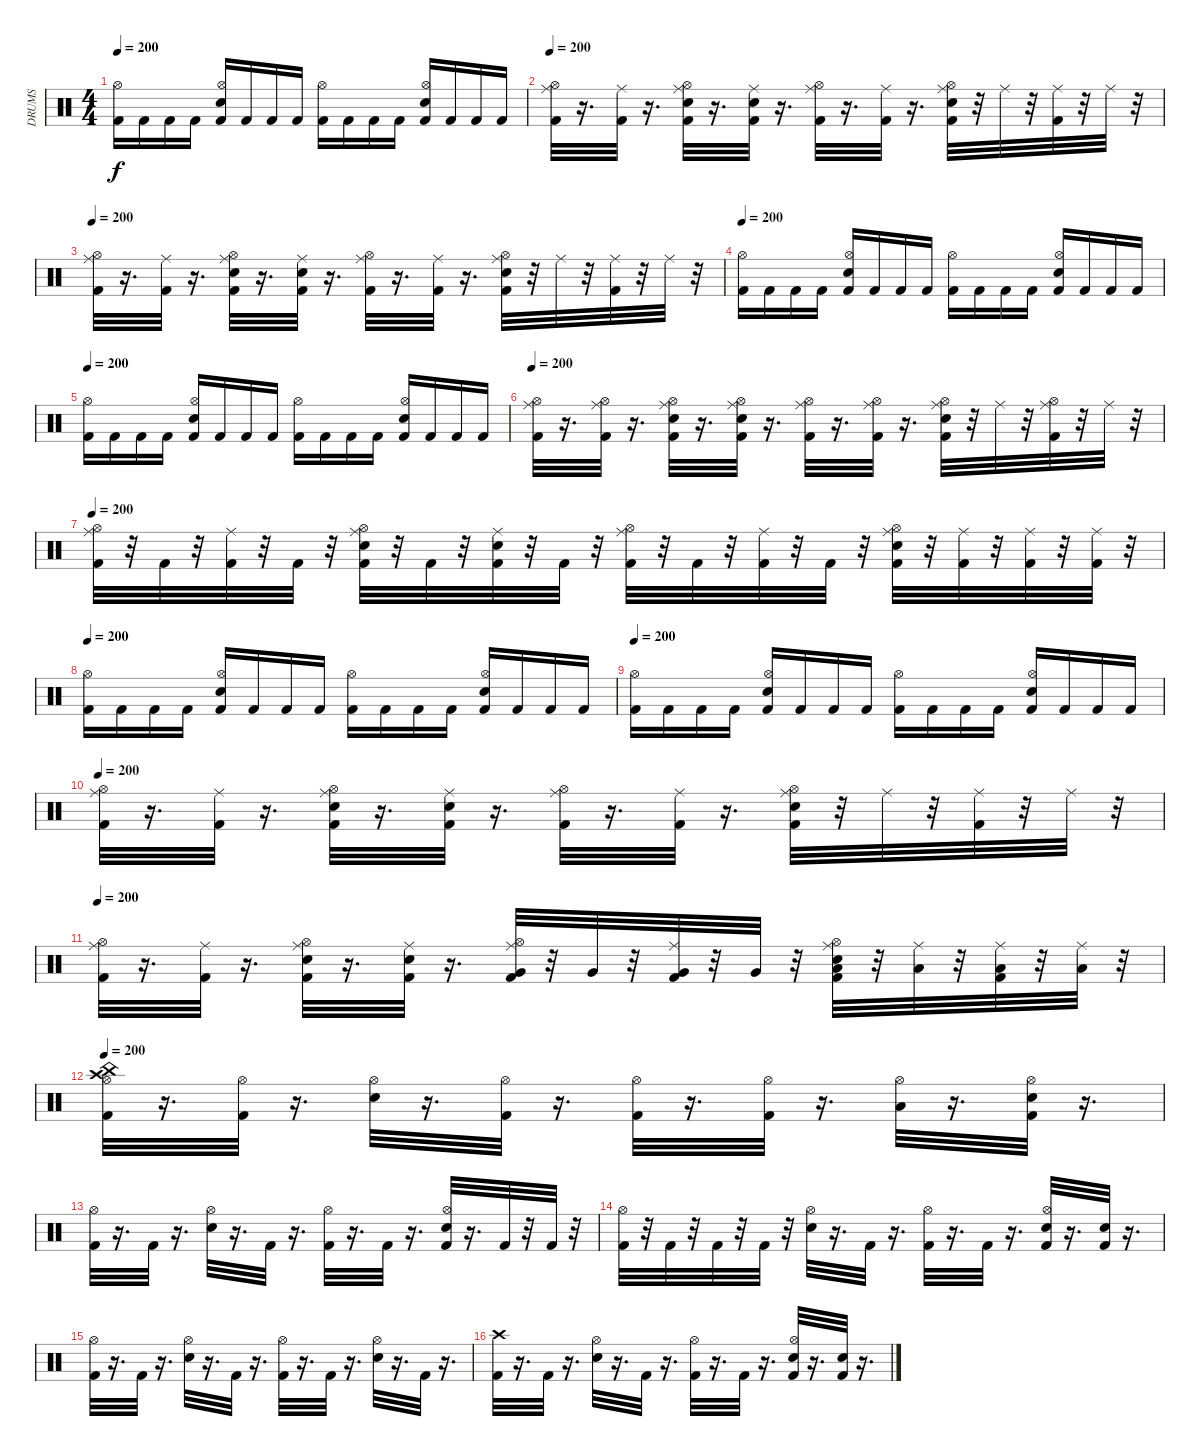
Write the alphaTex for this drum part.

\track ("DRUMS" "DRUMS") {instrument percussion}
\staff {score}
\articulation defaults
\ts (4 4)
\tempo 200
\clef neutral
\ks c
("Kick (hit) 2" "Hi-Hat (open)").16{dy f} "Kick (hit) 2".16 "Kick (hit) 2".16 "Kick (hit) 2".16 ("Kick (hit) 2" "Snare (hit) 2" "Hi-Hat (open)").16 "Kick (hit) 2".16 "Kick (hit) 2".16 "Kick (hit) 2".16 ("Kick (hit) 2" "Hi-Hat (open)").16 "Kick (hit) 2".16 "Kick (hit) 2".16 "Kick (hit) 2".16 ("Kick (hit) 2" "Snare (hit) 2" "Hi-Hat (open)").16 "Kick (hit) 2".16 "Kick (hit) 2".16 "Kick (hit) 2".16 |
\tempo 200
("Hi-Hat (open)" "Kick (hit) 2" "Ride (middle)").32 r.16{d} ("Ride (middle)" "Kick (hit) 2").32 r.16{d} ("Ride (middle)" "Kick (hit) 2" "Hi-Hat (open)" "Snare (hit) 2").32 r.16{d} ("Snare (hit) 2" "Ride (middle)" "Kick (hit) 2").32 r.16{d} ("Hi-Hat (open)" "Kick (hit) 2" "Ride (middle)").32 r.16{d} ("Kick (hit) 2" "Ride (middle)").32 r.16{d} ("Snare (hit) 2" "Hi-Hat (open)" "Kick (hit) 2" "Ride (middle)").32 r.32 "Ride (middle)".32 r.32 ("Kick (hit) 2" "Ride (middle)").32 r.32 "Ride (middle)".32 r.32 |
\tempo 200
("Ride (middle)" "Hi-Hat (open)" "Kick (hit) 2").32 r.16{d} ("Kick (hit) 2" "Ride (middle)").32 r.16{d} ("Kick (hit) 2" "Hi-Hat (open)" "Snare (hit) 2" "Ride (middle)").32 r.16{d} ("Ride (middle)" "Kick (hit) 2" "Snare (hit) 2").32 r.16{d} ("Hi-Hat (open)" "Ride (middle)" "Kick (hit) 2").32 r.16{d} ("Ride (middle)" "Kick (hit) 2").32 r.16{d} ("Snare (hit) 2" "Ride (middle)" "Hi-Hat (open)" "Kick (hit) 2").32 r.32 "Ride (middle)".32 r.32 ("Kick (hit) 2" "Ride (middle)").32 r.32 "Ride (middle)".32 r.32 |
\tempo 200
("Kick (hit) 2" "Hi-Hat (open)").16 "Kick (hit) 2".16 "Kick (hit) 2".16 "Kick (hit) 2".16 ("Kick (hit) 2" "Snare (hit) 2" "Hi-Hat (open)").16 "Kick (hit) 2".16 "Kick (hit) 2".16 "Kick (hit) 2".16 ("Kick (hit) 2" "Hi-Hat (open)").16 "Kick (hit) 2".16 "Kick (hit) 2".16 "Kick (hit) 2".16 ("Kick (hit) 2" "Snare (hit) 2" "Hi-Hat (open)").16 "Kick (hit) 2".16 "Kick (hit) 2".16 "Kick (hit) 2".16 |
\tempo 200
("Kick (hit) 2" "Hi-Hat (open)").16 "Kick (hit) 2".16 "Kick (hit) 2".16 "Kick (hit) 2".16 ("Kick (hit) 2" "Snare (hit) 2" "Hi-Hat (open)").16 "Kick (hit) 2".16 "Kick (hit) 2".16 "Kick (hit) 2".16 ("Kick (hit) 2" "Hi-Hat (open)").16 "Kick (hit) 2".16 "Kick (hit) 2".16 "Kick (hit) 2".16 ("Kick (hit) 2" "Snare (hit) 2" "Hi-Hat (open)").16 "Kick (hit) 2".16 "Kick (hit) 2".16 "Kick (hit) 2".16 |
\tempo 200
("Ride (middle)" "Kick (hit) 2" "Hi-Hat (open)").32 r.16{d} ("Kick (hit) 2" "Ride (middle)" "Hi-Hat (open)").32 r.16{d} ("Hi-Hat (open)" "Ride (middle)" "Kick (hit) 2" "Snare (hit) 2").32 r.16{d} ("Kick (hit) 2" "Ride (middle)" "Hi-Hat (open)" "Snare (hit) 2").32 r.16{d} ("Ride (middle)" "Hi-Hat (open)" "Kick (hit) 2").32 r.16{d} ("Ride (middle)" "Kick (hit) 2" "Hi-Hat (open)").32 r.16{d} ("Hi-Hat (open)" "Ride (middle)" "Kick (hit) 2" "Snare (hit) 2").32 r.32 "Ride (middle)".32 r.32 ("Hi-Hat (open)" "Ride (middle)" "Kick (hit) 2").32 r.32 "Ride (middle)".32 r.32 |
\tempo 200
("Hi-Hat (open)" "Kick (hit) 2" "Ride (middle)").32 r.32 "Kick (hit) 2".32 r.32 ("Ride (middle)" "Kick (hit) 2").32 r.32 "Kick (hit) 2".32 r.32 ("Ride (middle)" "Kick (hit) 2" "Hi-Hat (open)" "Snare (hit) 2").32 r.32 "Kick (hit) 2".32 r.32 ("Snare (hit) 2" "Ride (middle)" "Kick (hit) 2").32 r.32 "Kick (hit) 2".32 r.32 ("Ride (middle)" "Hi-Hat (open)" "Kick (hit) 2").32 r.32 "Kick (hit) 2".32 r.32 ("Ride (middle)" "Kick (hit) 2").32 r.32 "Kick (hit) 2".32 r.32 ("Kick (hit) 2" "Ride (middle)" "Snare (hit) 2" "Hi-Hat (open)").32 r.32 ("Ride (middle)" "Kick (hit) 2").32 r.32 ("Kick (hit) 2" "Ride (middle)").32 r.32 ("Ride (middle)" "Kick (hit) 2").32 r.32 |
\tempo 200
("Kick (hit) 2" "Hi-Hat (open)").16 "Kick (hit) 2".16 "Kick (hit) 2".16 "Kick (hit) 2".16 ("Kick (hit) 2" "Snare (hit) 2" "Hi-Hat (open)").16 "Kick (hit) 2".16 "Kick (hit) 2".16 "Kick (hit) 2".16 ("Kick (hit) 2" "Hi-Hat (open)").16 "Kick (hit) 2".16 "Kick (hit) 2".16 "Kick (hit) 2".16 ("Kick (hit) 2" "Snare (hit) 2" "Hi-Hat (open)").16 "Kick (hit) 2".16 "Kick (hit) 2".16 "Kick (hit) 2".16 |
\tempo 200
("Kick (hit) 2" "Hi-Hat (open)").16 "Kick (hit) 2".16 "Kick (hit) 2".16 "Kick (hit) 2".16 ("Kick (hit) 2" "Snare (hit) 2" "Hi-Hat (open)").16 "Kick (hit) 2".16 "Kick (hit) 2".16 "Kick (hit) 2".16 ("Kick (hit) 2" "Hi-Hat (open)").16 "Kick (hit) 2".16 "Kick (hit) 2".16 "Kick (hit) 2".16 ("Kick (hit) 2" "Snare (hit) 2" "Hi-Hat (open)").16 "Kick (hit) 2".16 "Kick (hit) 2".16 "Kick (hit) 2".16 |
\tempo 200
("Kick (hit) 2" "Hi-Hat (open)" "Ride (middle)").32 r.16{d} ("Ride (middle)" "Kick (hit) 2").32 r.16{d} ("Snare (hit) 2" "Ride (middle)" "Kick (hit) 2" "Hi-Hat (open)").32 r.16{d} ("Snare (hit) 2" "Ride (middle)" "Kick (hit) 2").32 r.16{d} ("Kick (hit) 2" "Hi-Hat (open)" "Ride (middle)").32 r.16{d} ("Ride (middle)" "Kick (hit) 2").32 r.16{d} ("Snare (hit) 2" "Hi-Hat (open)" "Kick (hit) 2" "Ride (middle)").32 r.32 "Ride (middle)".32 r.32 ("Kick (hit) 2" "Ride (middle)").32 r.32 "Ride (middle)".32 r.32 |
\tempo 200
("Kick (hit) 2" "Hi-Hat (open)" "Ride (middle)").32 r.16{d} ("Kick (hit) 2" "Ride (middle)").32 r.16{d} ("Kick (hit) 2" "Ride (middle)" "Hi-Hat (open)" "Snare (hit) 2").32 r.16{d} ("Kick (hit) 2" "Ride (middle)" "Snare (hit) 2").32 r.16{d} ("Very Low Tom (hit)" "Ride (middle)" "Kick (hit) 2" "Hi-Hat (open)").32 r.32 "Very Low Tom (hit)".32 r.32 ("Very Low Tom (hit)" "Kick (hit) 2" "Ride (middle)").32 r.32 "Very Low Tom (hit)".32 r.32 ("Low Floor Tom (hit)" "Kick (hit) 2" "Ride (middle)" "Snare (hit) 2" "Hi-Hat (open)").32 r.32 ("Low Floor Tom (hit)" "Ride (middle)").32 r.32 ("Low Floor Tom (hit)" "Ride (middle)" "Kick (hit) 2").32 r.32 ("Low Floor Tom (hit)" "Ride (middle)").32 r.32 |
\tempo 200
("China (hit)" "Hi-Hat (open)" "Kick (hit) 2" "Crash high (hit)").32 r.16{d} ("Hi-Hat (open)" "Kick (hit) 2").32 r.16{d} ("Hi-Hat (open)" "Snare (hit) 2").32 r.16{d} ("Hi-Hat (open)" "Kick (hit) 2").32 r.16{d} ("Kick (hit) 2" "Hi-Hat (open)").32 r.16{d} ("Kick (hit) 2" "Hi-Hat (open)").32 r.16{d} ("Low Tom (hit)" "Hi-Hat (open)").32 r.16{d} ("Kick (hit) 2" "Hi-Hat (open)" "Snare (hit) 2").32 r.16{d} |
("Hi-Hat (open)" "Kick (hit) 2").32 r.16{d} "Kick (hit) 2".32 r.16{d} ("Hi-Hat (open)" "Snare (hit) 2").32 r.16{d} "Kick (hit) 2".32 r.16{d} ("Kick (hit) 2" "Hi-Hat (open)").32 r.16{d} "Kick (hit) 2".32 r.16{d} ("Kick (hit) 2" "Snare (hit) 2" "Hi-Hat (open)").32 r.16{d} "Kick (hit) 2".32 r.32 "Kick (hit) 2".32 r.32 |
("Kick (hit) 2" "Hi-Hat (open)").32 r.32 "Kick (hit) 2".32 r.32 "Kick (hit) 2".32 r.32 "Kick (hit) 2".32 r.32 ("Snare (hit) 2" "Hi-Hat (open)").32 r.16{d} "Kick (hit) 2".32 r.16{d} ("Kick (hit) 2" "Hi-Hat (open)").32 r.16{d} "Kick (hit) 2".32 r.16{d} ("Snare (hit) 2" "Kick (hit) 2" "Hi-Hat (open)").32 r.16{d} ("Kick (hit) 2" "Snare (hit) 2").32 r.16{d} |
("Kick (hit) 2" "Hi-Hat (open)").32 r.16{d} "Kick (hit) 2".32 r.16{d} ("Snare (hit) 2" "Hi-Hat (open)").32 r.16{d} "Kick (hit) 2".32 r.16{d} ("Kick (hit) 2" "Hi-Hat (open)").32 r.16{d} "Kick (hit) 2".32 r.16{d} ("Snare (hit) 2" "Hi-Hat (open)").32 r.16{d} "Kick (hit) 2".32 r.16{d} |
("Crash high (hit)" "Kick (hit) 2").32 r.16{d} "Kick (hit) 2".32 r.16{d} ("Snare (hit) 2" "Hi-Hat (open)").32 r.16{d} "Kick (hit) 2".32 r.16{d} ("Hi-Hat (open)" "Kick (hit) 2").32 r.16{d} "Kick (hit) 2".32 r.16{d} ("Hi-Hat (open)" "Snare (hit) 2" "Kick (hit) 2").32 r.16{d} ("Snare (hit) 2" "Kick (hit) 2").32 r.16{d}
